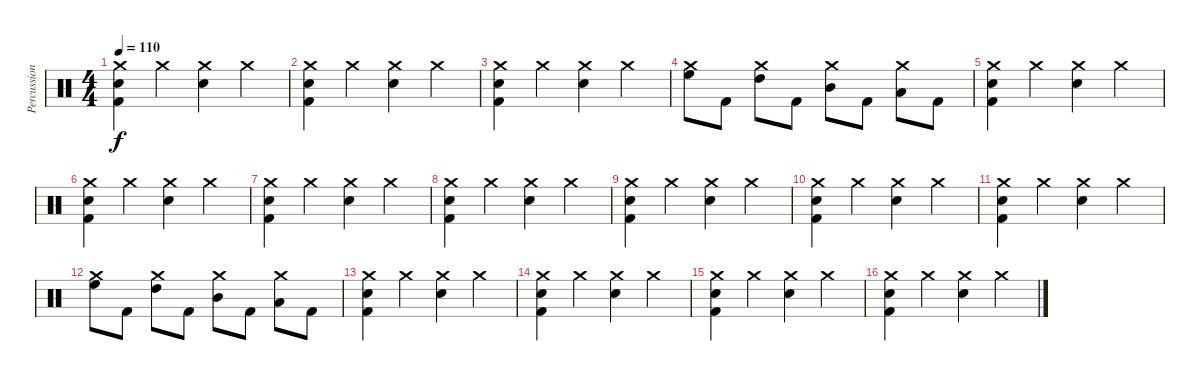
\track ("Percussion" "Percussion") {instrument percussion}
\staff {score}
\articulation defaults
\ts (4 4)
\tempo 110
\clef neutral
\ks c
("Crash medium (hit)" "Electric Snare (hit)" "Kick (hit) 2").4{dy f} "Crash medium (hit)".4 ("Crash medium (hit)" "Electric Snare (hit)").4 "Crash medium (hit)".4 |
("Crash medium (hit)" "Electric Snare (hit)" "Kick (hit) 2").4 "Crash medium (hit)".4 ("Crash medium (hit)" "Electric Snare (hit)").4 "Crash medium (hit)".4 |
("Crash medium (hit)" "Electric Snare (hit)" "Kick (hit) 2").4 "Crash medium (hit)".4 ("Crash medium (hit)" "Electric Snare (hit)").4 "Crash medium (hit)".4 |
("Crash medium (hit)" "High Floor Tom (hit)").8 "Kick (hit) 2".8 ("Crash medium (hit)" "High Tom (hit)").8 "Kick (hit) 2".8 ("Crash medium (hit)" "Mid Tom (hit)").8 "Kick (hit) 2".8 ("Crash medium (hit)" "Low Tom (hit)").8 "Kick (hit) 2".8 |
("Crash medium (hit)" "Electric Snare (hit)" "Kick (hit) 2").4 "Crash medium (hit)".4 ("Crash medium (hit)" "Electric Snare (hit)").4 "Crash medium (hit)".4 |
("Crash medium (hit)" "Electric Snare (hit)" "Kick (hit) 2").4 "Crash medium (hit)".4 ("Crash medium (hit)" "Electric Snare (hit)").4 "Crash medium (hit)".4 |
("Crash medium (hit)" "Electric Snare (hit)" "Kick (hit) 2").4 "Crash medium (hit)".4 ("Crash medium (hit)" "Electric Snare (hit)").4 "Crash medium (hit)".4 |
("Crash medium (hit)" "Electric Snare (hit)" "Kick (hit) 2").4 "Crash medium (hit)".4 ("Crash medium (hit)" "Electric Snare (hit)").4 "Crash medium (hit)".4 |
("Crash medium (hit)" "Electric Snare (hit)" "Kick (hit) 2").4 "Crash medium (hit)".4 ("Crash medium (hit)" "Electric Snare (hit)").4 "Crash medium (hit)".4 |
("Crash medium (hit)" "Electric Snare (hit)" "Kick (hit) 2").4 "Crash medium (hit)".4 ("Crash medium (hit)" "Electric Snare (hit)").4 "Crash medium (hit)".4 |
("Crash medium (hit)" "Electric Snare (hit)" "Kick (hit) 2").4 "Crash medium (hit)".4 ("Crash medium (hit)" "Electric Snare (hit)").4 "Crash medium (hit)".4 |
("Crash medium (hit)" "High Floor Tom (hit)").8 "Kick (hit) 2".8 ("Crash medium (hit)" "High Tom (hit)").8 "Kick (hit) 2".8 ("Crash medium (hit)" "Mid Tom (hit)").8 "Kick (hit) 2".8 ("Crash medium (hit)" "Low Tom (hit)").8 "Kick (hit) 2".8 |
("Crash medium (hit)" "Electric Snare (hit)" "Kick (hit) 2").4 "Crash medium (hit)".4 ("Crash medium (hit)" "Electric Snare (hit)").4 "Crash medium (hit)".4 |
("Crash medium (hit)" "Electric Snare (hit)" "Kick (hit) 2").4 "Crash medium (hit)".4 ("Crash medium (hit)" "Electric Snare (hit)").4 "Crash medium (hit)".4 |
("Crash medium (hit)" "Electric Snare (hit)" "Kick (hit) 2").4 "Crash medium (hit)".4 ("Crash medium (hit)" "Electric Snare (hit)").4 "Crash medium (hit)".4 |
("Crash medium (hit)" "Electric Snare (hit)" "Kick (hit) 2").4 "Crash medium (hit)".4 ("Crash medium (hit)" "Electric Snare (hit)").4 "Crash medium (hit)".4
